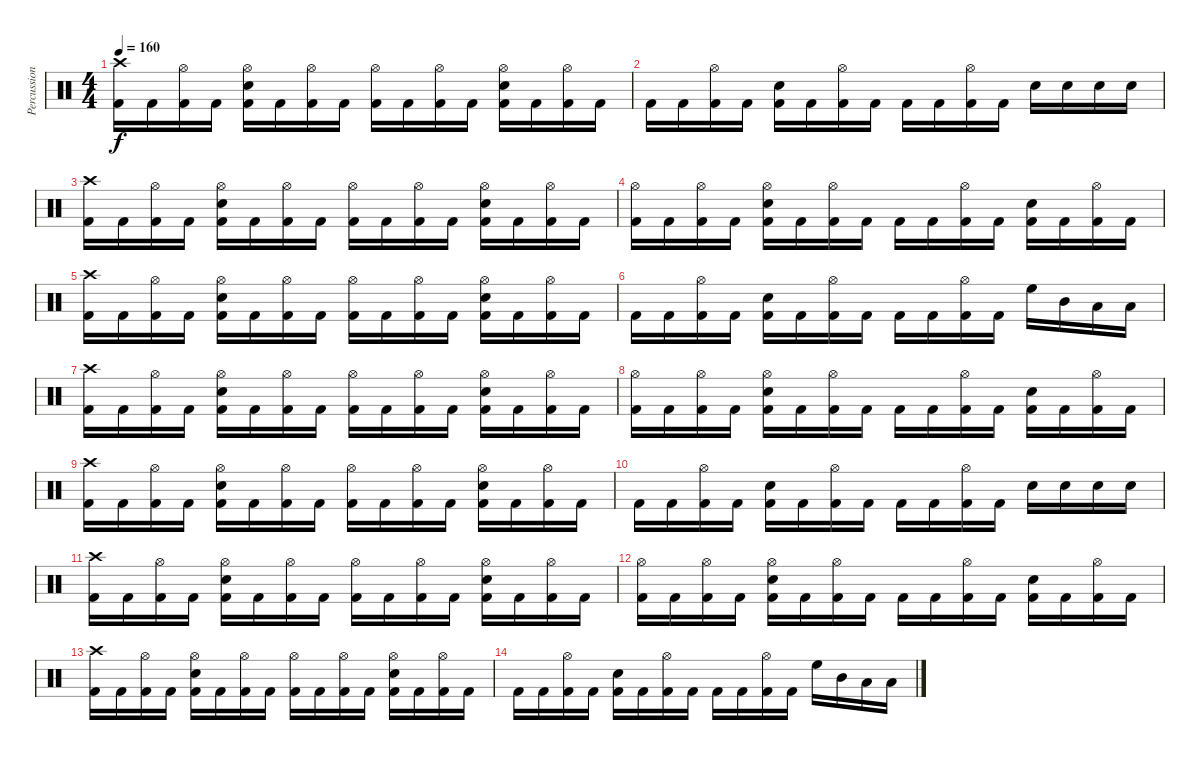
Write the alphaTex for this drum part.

\track ("Percussion" "Percussion") {instrument percussion}
\staff {score}
\articulation defaults
\ts (4 4)
\tempo 160
\clef neutral
\ks c
("Crash high (hit)" "Kick (hit) 2").16{dy f} "Kick (hit) 2".16 ("Hi-Hat (open)" "Kick (hit) 2").16 "Kick (hit) 2".16 ("Hi-Hat (open)" "Electric Snare (hit)" "Kick (hit) 2").16 "Kick (hit) 2".16 ("Hi-Hat (open)" "Kick (hit) 2").16 "Kick (hit) 2".16 ("Hi-Hat (open)" "Kick (hit) 2").16 "Kick (hit) 2".16 ("Hi-Hat (open)" "Kick (hit) 2").16 "Kick (hit) 2".16 ("Hi-Hat (open)" "Electric Snare (hit)" "Kick (hit) 2").16 "Kick (hit) 2".16 ("Hi-Hat (open)" "Kick (hit) 2").16 "Kick (hit) 2".16 |
"Kick (hit) 2".16 "Kick (hit) 2".16 ("Hi-Hat (open)" "Kick (hit) 2").16 "Kick (hit) 2".16 ("Electric Snare (hit)" "Kick (hit) 2").16 "Kick (hit) 2".16 ("Hi-Hat (open)" "Kick (hit) 2").16 "Kick (hit) 2".16 "Kick (hit) 2".16 "Kick (hit) 2".16 ("Hi-Hat (open)" "Kick (hit) 2").16 "Kick (hit) 2".16 "Electric Snare (hit)".16 "Electric Snare (hit)".16 "Electric Snare (hit)".16 "Electric Snare (hit)".16 |
("Crash high (hit)" "Kick (hit) 2").16 "Kick (hit) 2".16 ("Hi-Hat (open)" "Kick (hit) 2").16 "Kick (hit) 2".16 ("Hi-Hat (open)" "Electric Snare (hit)" "Kick (hit) 2").16 "Kick (hit) 2".16 ("Hi-Hat (open)" "Kick (hit) 2").16 "Kick (hit) 2".16 ("Hi-Hat (open)" "Kick (hit) 2").16 "Kick (hit) 2".16 ("Hi-Hat (open)" "Kick (hit) 2").16 "Kick (hit) 2".16 ("Hi-Hat (open)" "Electric Snare (hit)" "Kick (hit) 2").16 "Kick (hit) 2".16 ("Hi-Hat (open)" "Kick (hit) 2").16 "Kick (hit) 2".16 |
("Hi-Hat (open)" "Kick (hit) 2").16 "Kick (hit) 2".16 ("Hi-Hat (open)" "Kick (hit) 2").16 "Kick (hit) 2".16 ("Hi-Hat (open)" "Electric Snare (hit)" "Kick (hit) 2").16 "Kick (hit) 2".16 ("Hi-Hat (open)" "Kick (hit) 2").16 "Kick (hit) 2".16 "Kick (hit) 2".16 "Kick (hit) 2".16 ("Hi-Hat (open)" "Kick (hit) 2").16 "Kick (hit) 2".16 ("Electric Snare (hit)" "Kick (hit) 2").16 "Kick (hit) 2".16 ("Hi-Hat (open)" "Kick (hit) 2").16 "Kick (hit) 2".16 |
("Crash high (hit)" "Kick (hit) 2").16 "Kick (hit) 2".16 ("Hi-Hat (open)" "Kick (hit) 2").16 "Kick (hit) 2".16 ("Hi-Hat (open)" "Electric Snare (hit)" "Kick (hit) 2").16 "Kick (hit) 2".16 ("Hi-Hat (open)" "Kick (hit) 2").16 "Kick (hit) 2".16 ("Hi-Hat (open)" "Kick (hit) 2").16 "Kick (hit) 2".16 ("Hi-Hat (open)" "Kick (hit) 2").16 "Kick (hit) 2".16 ("Hi-Hat (open)" "Electric Snare (hit)" "Kick (hit) 2").16 "Kick (hit) 2".16 ("Hi-Hat (open)" "Kick (hit) 2").16 "Kick (hit) 2".16 |
"Kick (hit) 2".16 "Kick (hit) 2".16 ("Hi-Hat (open)" "Kick (hit) 2").16 "Kick (hit) 2".16 ("Electric Snare (hit)" "Kick (hit) 2").16 "Kick (hit) 2".16 ("Hi-Hat (open)" "Kick (hit) 2").16 "Kick (hit) 2".16 "Kick (hit) 2".16 "Kick (hit) 2".16 ("Hi-Hat (open)" "Kick (hit) 2").16 "Kick (hit) 2".16 "High Floor Tom (hit)".16 "Mid Tom (hit)".16 "Low Tom (hit)".16 "Low Floor Tom (hit)".16 |
("Crash high (hit)" "Kick (hit) 2").16 "Kick (hit) 2".16 ("Hi-Hat (open)" "Kick (hit) 2").16 "Kick (hit) 2".16 ("Hi-Hat (open)" "Electric Snare (hit)" "Kick (hit) 2").16 "Kick (hit) 2".16 ("Hi-Hat (open)" "Kick (hit) 2").16 "Kick (hit) 2".16 ("Hi-Hat (open)" "Kick (hit) 2").16 "Kick (hit) 2".16 ("Hi-Hat (open)" "Kick (hit) 2").16 "Kick (hit) 2".16 ("Hi-Hat (open)" "Electric Snare (hit)" "Kick (hit) 2").16 "Kick (hit) 2".16 ("Hi-Hat (open)" "Kick (hit) 2").16 "Kick (hit) 2".16 |
("Hi-Hat (open)" "Kick (hit) 2").16 "Kick (hit) 2".16 ("Hi-Hat (open)" "Kick (hit) 2").16 "Kick (hit) 2".16 ("Hi-Hat (open)" "Electric Snare (hit)" "Kick (hit) 2").16 "Kick (hit) 2".16 ("Hi-Hat (open)" "Kick (hit) 2").16 "Kick (hit) 2".16 "Kick (hit) 2".16 "Kick (hit) 2".16 ("Hi-Hat (open)" "Kick (hit) 2").16 "Kick (hit) 2".16 ("Electric Snare (hit)" "Kick (hit) 2").16 "Kick (hit) 2".16 ("Hi-Hat (open)" "Kick (hit) 2").16 "Kick (hit) 2".16 |
("Crash high (hit)" "Kick (hit) 2").16 "Kick (hit) 2".16 ("Hi-Hat (open)" "Kick (hit) 2").16 "Kick (hit) 2".16 ("Hi-Hat (open)" "Electric Snare (hit)" "Kick (hit) 2").16 "Kick (hit) 2".16 ("Hi-Hat (open)" "Kick (hit) 2").16 "Kick (hit) 2".16 ("Hi-Hat (open)" "Kick (hit) 2").16 "Kick (hit) 2".16 ("Hi-Hat (open)" "Kick (hit) 2").16 "Kick (hit) 2".16 ("Hi-Hat (open)" "Electric Snare (hit)" "Kick (hit) 2").16 "Kick (hit) 2".16 ("Hi-Hat (open)" "Kick (hit) 2").16 "Kick (hit) 2".16 |
"Kick (hit) 2".16 "Kick (hit) 2".16 ("Hi-Hat (open)" "Kick (hit) 2").16 "Kick (hit) 2".16 ("Electric Snare (hit)" "Kick (hit) 2").16 "Kick (hit) 2".16 ("Hi-Hat (open)" "Kick (hit) 2").16 "Kick (hit) 2".16 "Kick (hit) 2".16 "Kick (hit) 2".16 ("Hi-Hat (open)" "Kick (hit) 2").16 "Kick (hit) 2".16 "Electric Snare (hit)".16 "Electric Snare (hit)".16 "Electric Snare (hit)".16 "Electric Snare (hit)".16 |
("Crash high (hit)" "Kick (hit) 2").16 "Kick (hit) 2".16 ("Hi-Hat (open)" "Kick (hit) 2").16 "Kick (hit) 2".16 ("Hi-Hat (open)" "Electric Snare (hit)" "Kick (hit) 2").16 "Kick (hit) 2".16 ("Hi-Hat (open)" "Kick (hit) 2").16 "Kick (hit) 2".16 ("Hi-Hat (open)" "Kick (hit) 2").16 "Kick (hit) 2".16 ("Hi-Hat (open)" "Kick (hit) 2").16 "Kick (hit) 2".16 ("Hi-Hat (open)" "Electric Snare (hit)" "Kick (hit) 2").16 "Kick (hit) 2".16 ("Hi-Hat (open)" "Kick (hit) 2").16 "Kick (hit) 2".16 |
("Hi-Hat (open)" "Kick (hit) 2").16 "Kick (hit) 2".16 ("Hi-Hat (open)" "Kick (hit) 2").16 "Kick (hit) 2".16 ("Hi-Hat (open)" "Electric Snare (hit)" "Kick (hit) 2").16 "Kick (hit) 2".16 ("Hi-Hat (open)" "Kick (hit) 2").16 "Kick (hit) 2".16 "Kick (hit) 2".16 "Kick (hit) 2".16 ("Hi-Hat (open)" "Kick (hit) 2").16 "Kick (hit) 2".16 ("Electric Snare (hit)" "Kick (hit) 2").16 "Kick (hit) 2".16 ("Hi-Hat (open)" "Kick (hit) 2").16 "Kick (hit) 2".16 |
("Crash high (hit)" "Kick (hit) 2").16 "Kick (hit) 2".16 ("Hi-Hat (open)" "Kick (hit) 2").16 "Kick (hit) 2".16 ("Hi-Hat (open)" "Electric Snare (hit)" "Kick (hit) 2").16 "Kick (hit) 2".16 ("Hi-Hat (open)" "Kick (hit) 2").16 "Kick (hit) 2".16 ("Hi-Hat (open)" "Kick (hit) 2").16 "Kick (hit) 2".16 ("Hi-Hat (open)" "Kick (hit) 2").16 "Kick (hit) 2".16 ("Hi-Hat (open)" "Electric Snare (hit)" "Kick (hit) 2").16 "Kick (hit) 2".16 ("Hi-Hat (open)" "Kick (hit) 2").16 "Kick (hit) 2".16 |
"Kick (hit) 2".16 "Kick (hit) 2".16 ("Hi-Hat (open)" "Kick (hit) 2").16 "Kick (hit) 2".16 ("Electric Snare (hit)" "Kick (hit) 2").16 "Kick (hit) 2".16 ("Hi-Hat (open)" "Kick (hit) 2").16 "Kick (hit) 2".16 "Kick (hit) 2".16 "Kick (hit) 2".16 ("Hi-Hat (open)" "Kick (hit) 2").16 "Kick (hit) 2".16 "High Floor Tom (hit)".16 "Mid Tom (hit)".16 "Low Tom (hit)".16 "Low Floor Tom (hit)".16
